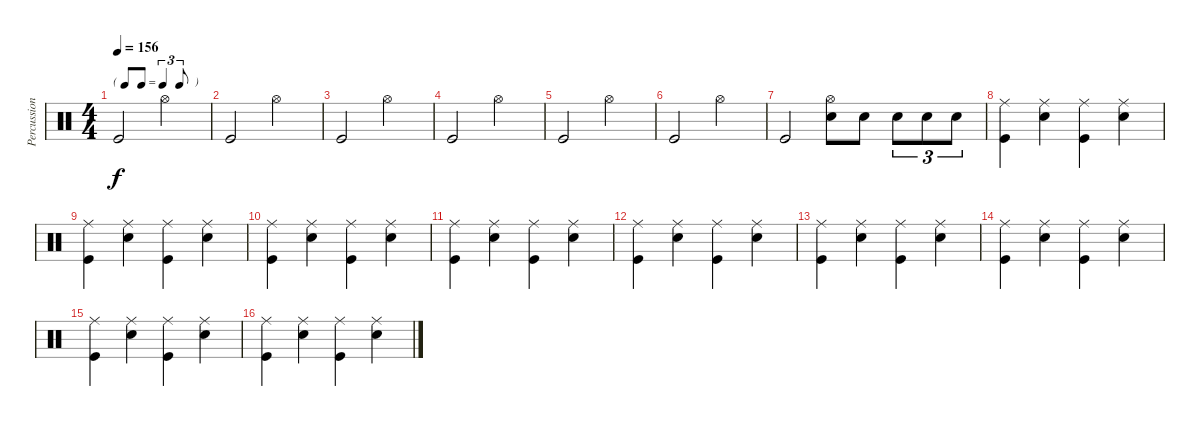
\track ("Percussion" "Percussion") {instrument percussion}
\staff {score}
\articulation defaults
\ts (4 4)
\tf triplet8th
\tempo 156
\clef neutral
\ks c "Kick (hit)".2{dy f} "Hi-Hat (open)".2
|
"Kick (hit)".2 "Hi-Hat (open)".2 |
"Kick (hit)".2 "Hi-Hat (open)".2 |
"Kick (hit)".2 "Hi-Hat (open)".2 |
"Kick (hit)".2 "Hi-Hat (open)".2 |
"Kick (hit)".2 "Hi-Hat (open)".2 |
"Kick (hit)".2 ("Snare (hit) 2" "Hi-Hat (open)").8 "Snare (hit) 2".8 "Snare (hit) 2".8{tu (3 2)} "Snare (hit) 2".8{tu (3 2)} "Snare (hit) 2".8{tu (3 2)} |
("Ride (middle)" "Kick (hit)").4 ("Snare (hit) 2" "Ride (middle)").4 ("Ride (middle)" "Kick (hit)").4 ("Snare (hit) 2" "Ride (middle)").4 |
("Ride (middle)" "Kick (hit)").4 ("Snare (hit) 2" "Ride (middle)").4 ("Ride (middle)" "Kick (hit)").4 ("Snare (hit) 2" "Ride (middle)").4 |
("Ride (middle)" "Kick (hit)").4 ("Snare (hit) 2" "Ride (middle)").4 ("Ride (middle)" "Kick (hit)").4 ("Snare (hit) 2" "Ride (middle)").4 |
("Ride (middle)" "Kick (hit)").4 ("Snare (hit) 2" "Ride (middle)").4 ("Ride (middle)" "Kick (hit)").4 ("Snare (hit) 2" "Ride (middle)").4 |
("Ride (middle)" "Kick (hit)").4 ("Snare (hit) 2" "Ride (middle)").4 ("Ride (middle)" "Kick (hit)").4 ("Snare (hit) 2" "Ride (middle)").4 |
("Ride (middle)" "Kick (hit)").4 ("Snare (hit) 2" "Ride (middle)").4 ("Ride (middle)" "Kick (hit)").4 ("Snare (hit) 2" "Ride (middle)").4 |
("Ride (middle)" "Kick (hit)").4 ("Snare (hit) 2" "Ride (middle)").4 ("Ride (middle)" "Kick (hit)").4 ("Snare (hit) 2" "Ride (middle)").4 |
("Ride (middle)" "Kick (hit)").4 ("Snare (hit) 2" "Ride (middle)").4 ("Ride (middle)" "Kick (hit)").4 ("Snare (hit) 2" "Ride (middle)").4 |
("Ride (middle)" "Kick (hit)").4 ("Snare (hit) 2" "Ride (middle)").4 ("Ride (middle)" "Kick (hit)").4 ("Snare (hit) 2" "Ride (middle)").4
